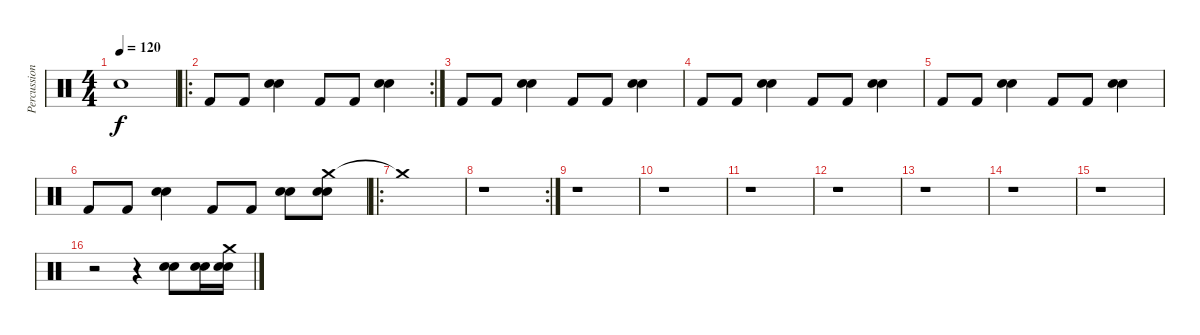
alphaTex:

\track ("Percussions" "Percussion") {instrument percussion}
\staff {score}
\articulation defaults
\ts (4 4)
\tempo 120
\clef neutral
\ks c "Snare (hit)".1{dy f}
|
\ro
\rc 2 "Kick (hit) 2".8 "Kick (hit) 2".8
("Hand Clap (hit)" "Electric Snare (hit)").4 "Kick (hit) 2".8 "Kick (hit) 2".8 ("Hand Clap (hit)" "Electric Snare (hit)").4 |
"Kick (hit) 2".8 "Kick (hit) 2".8 ("Hand Clap (hit)" "Electric Snare (hit)").4 "Kick (hit) 2".8 "Kick (hit) 2".8 ("Hand Clap (hit)" "Electric Snare (hit)").4 |
"Kick (hit) 2".8 "Kick (hit) 2".8 ("Hand Clap (hit)" "Electric Snare (hit)").4 "Kick (hit) 2".8 "Kick (hit) 2".8 ("Hand Clap (hit)" "Electric Snare (hit)").4 |
"Kick (hit) 2".8 "Kick (hit) 2".8 ("Hand Clap (hit)" "Electric Snare (hit)").4 "Kick (hit) 2".8 "Kick (hit) 2".8 ("Hand Clap (hit)" "Electric Snare (hit)").4 |
"Kick (hit) 2".8 "Kick (hit) 2".8 ("Hand Clap (hit)" "Electric Snare (hit)").4 "Kick (hit) 2".8 "Kick (hit) 2".8 ("Hand Clap (hit)" "Electric Snare (hit)").8 ("Crash medium (hit)" "Hand Clap (hit)" "Electric Snare (hit)").8 |
\ro "Crash medium (hit)"{t}.1
|
\rc 2
r.1 |
r.1 |
r.1 |
r.1 |
r.1 |
r.1 |
r.1 |
r.1 |
r.2 r.4 ("Hand Clap (hit)" "Electric Snare (hit)").8 ("Hand Clap (hit)" "Electric Snare (hit)").16 ("Crash medium (hit)" "Hand Clap (hit)" "Electric Snare (hit)").16
